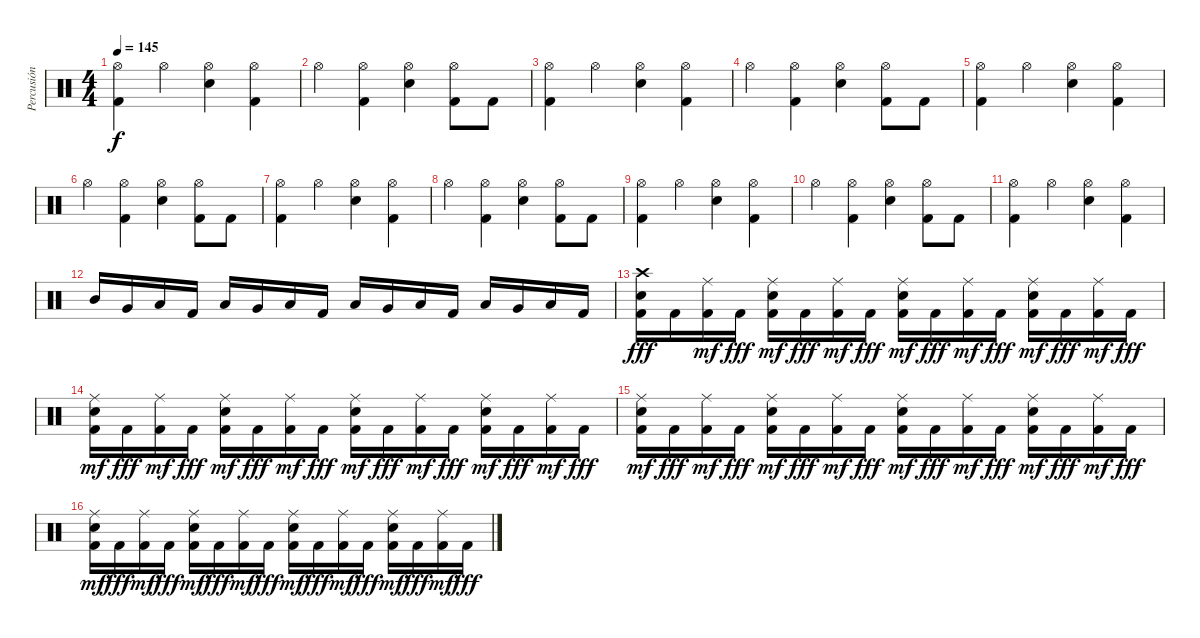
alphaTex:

\track ("Percusión" "Percusión") {instrument percussion}
\staff {score}
\articulation defaults
\ts (4 4)
\tempo 145
\clef neutral
\ks c
("Kick (hit) 2" "Hi-Hat (open)").4{dy f} "Hi-Hat (open)".4 ("Snare (hit) 2" "Hi-Hat (open)").4 ("Kick (hit) 2" "Hi-Hat (open)").4 |
"Hi-Hat (open)".4 ("Kick (hit) 2" "Hi-Hat (open)").4 ("Snare (hit) 2" "Hi-Hat (open)").4 ("Kick (hit) 2" "Hi-Hat (open)").8 "Kick (hit) 2".8 |
("Kick (hit) 2" "Hi-Hat (open)").4 "Hi-Hat (open)".4 ("Snare (hit) 2" "Hi-Hat (open)").4 ("Kick (hit) 2" "Hi-Hat (open)").4 |
"Hi-Hat (open)".4 ("Kick (hit) 2" "Hi-Hat (open)").4 ("Snare (hit) 2" "Hi-Hat (open)").4 ("Kick (hit) 2" "Hi-Hat (open)").8 "Kick (hit) 2".8 |
("Kick (hit) 2" "Hi-Hat (open)").4 "Hi-Hat (open)".4 ("Snare (hit) 2" "Hi-Hat (open)").4 ("Kick (hit) 2" "Hi-Hat (open)").4 |
"Hi-Hat (open)".4 ("Kick (hit) 2" "Hi-Hat (open)").4 ("Snare (hit) 2" "Hi-Hat (open)").4 ("Kick (hit) 2" "Hi-Hat (open)").8 "Kick (hit) 2".8 |
("Kick (hit) 2" "Hi-Hat (open)").4 "Hi-Hat (open)".4 ("Snare (hit) 2" "Hi-Hat (open)").4 ("Kick (hit) 2" "Hi-Hat (open)").4 |
"Hi-Hat (open)".4 ("Kick (hit) 2" "Hi-Hat (open)").4 ("Snare (hit) 2" "Hi-Hat (open)").4 ("Kick (hit) 2" "Hi-Hat (open)").8 "Kick (hit) 2".8 |
("Kick (hit) 2" "Hi-Hat (open)").4 "Hi-Hat (open)".4 ("Snare (hit) 2" "Hi-Hat (open)").4 ("Kick (hit) 2" "Hi-Hat (open)").4 |
"Hi-Hat (open)".4 ("Kick (hit) 2" "Hi-Hat (open)").4 ("Snare (hit) 2" "Hi-Hat (open)").4 ("Kick (hit) 2" "Hi-Hat (open)").8 "Kick (hit) 2".8 |
("Kick (hit) 2" "Hi-Hat (open)").4 "Hi-Hat (open)".4 ("Snare (hit) 2" "Hi-Hat (open)").4 ("Kick (hit) 2" "Hi-Hat (open)").4 |
"Mid Tom (hit)".16 "Very Low Tom (hit)".16 "Low Floor Tom (hit)".16 "Kick (hit) 2".16 "Low Tom (hit)".16 "Very Low Tom (hit)".16 "Low Floor Tom (hit)".16 "Kick (hit) 2".16 "Low Tom (hit)".16 "Very Low Tom (hit)".16 "Low Floor Tom (hit)".16 "Kick (hit) 2".16 "Low Tom (hit)".16 "Very Low Tom (hit)".16 "Low Floor Tom (hit)".16 "Kick (hit) 2".16 |
("Kick (hit) 2" "Snare (hit) 2" "Crash high (hit)").16{dy fff} "Kick (hit) 2".16 ("Kick (hit) 2" "Ride (middle)").16{dy mf} "Kick (hit) 2".16{dy fff} ("Kick (hit) 2" "Snare (hit) 2" "Ride (middle)").16{dy mf} "Kick (hit) 2".16{dy fff} ("Kick (hit) 2" "Ride (middle)").16{dy mf} "Kick (hit) 2".16{dy fff} ("Kick (hit) 2" "Snare (hit) 2" "Ride (middle)").16{dy mf} "Kick (hit) 2".16{dy fff} ("Kick (hit) 2" "Ride (middle)").16{dy mf} "Kick (hit) 2".16{dy fff} ("Kick (hit) 2" "Snare (hit) 2" "Ride (middle)").16{dy mf} "Kick (hit) 2".16{dy fff} ("Kick (hit) 2" "Ride (middle)").16{dy mf} "Kick (hit) 2".16{dy fff} |
("Kick (hit) 2" "Snare (hit) 2" "Ride (middle)").16{dy mf} "Kick (hit) 2".16{dy fff} ("Kick (hit) 2" "Ride (middle)").16{dy mf} "Kick (hit) 2".16{dy fff} ("Kick (hit) 2" "Snare (hit) 2" "Ride (middle)").16{dy mf} "Kick (hit) 2".16{dy fff} ("Kick (hit) 2" "Ride (middle)").16{dy mf} "Kick (hit) 2".16{dy fff} ("Kick (hit) 2" "Snare (hit) 2" "Ride (middle)").16{dy mf} "Kick (hit) 2".16{dy fff} ("Kick (hit) 2" "Ride (middle)").16{dy mf} "Kick (hit) 2".16{dy fff} ("Kick (hit) 2" "Snare (hit) 2" "Ride (middle)").16{dy mf} "Kick (hit) 2".16{dy fff} ("Kick (hit) 2" "Ride (middle)").16{dy mf} "Kick (hit) 2".16{dy fff} |
("Kick (hit) 2" "Snare (hit) 2" "Ride (middle)").16{dy mf} "Kick (hit) 2".16{dy fff} ("Kick (hit) 2" "Ride (middle)").16{dy mf} "Kick (hit) 2".16{dy fff} ("Kick (hit) 2" "Snare (hit) 2" "Ride (middle)").16{dy mf} "Kick (hit) 2".16{dy fff} ("Kick (hit) 2" "Ride (middle)").16{dy mf} "Kick (hit) 2".16{dy fff} ("Kick (hit) 2" "Snare (hit) 2" "Ride (middle)").16{dy mf} "Kick (hit) 2".16{dy fff} ("Kick (hit) 2" "Ride (middle)").16{dy mf} "Kick (hit) 2".16{dy fff} ("Kick (hit) 2" "Snare (hit) 2" "Ride (middle)").16{dy mf} "Kick (hit) 2".16{dy fff} ("Kick (hit) 2" "Ride (middle)").16{dy mf} "Kick (hit) 2".16{dy fff} |
("Kick (hit) 2" "Snare (hit) 2" "Ride (middle)").16{dy mf} "Kick (hit) 2".16{dy fff} ("Kick (hit) 2" "Ride (middle)").16{dy mf} "Kick (hit) 2".16{dy fff} ("Kick (hit) 2" "Snare (hit) 2" "Ride (middle)").16{dy mf} "Kick (hit) 2".16{dy fff} ("Kick (hit) 2" "Ride (middle)").16{dy mf} "Kick (hit) 2".16{dy fff} ("Kick (hit) 2" "Snare (hit) 2" "Ride (middle)").16{dy mf} "Kick (hit) 2".16{dy fff} ("Kick (hit) 2" "Ride (middle)").16{dy mf} "Kick (hit) 2".16{dy fff} ("Kick (hit) 2" "Snare (hit) 2" "Ride (middle)").16{dy mf} "Kick (hit) 2".16{dy fff} ("Kick (hit) 2" "Ride (middle)").16{dy mf} "Kick (hit) 2".16{dy fff}
